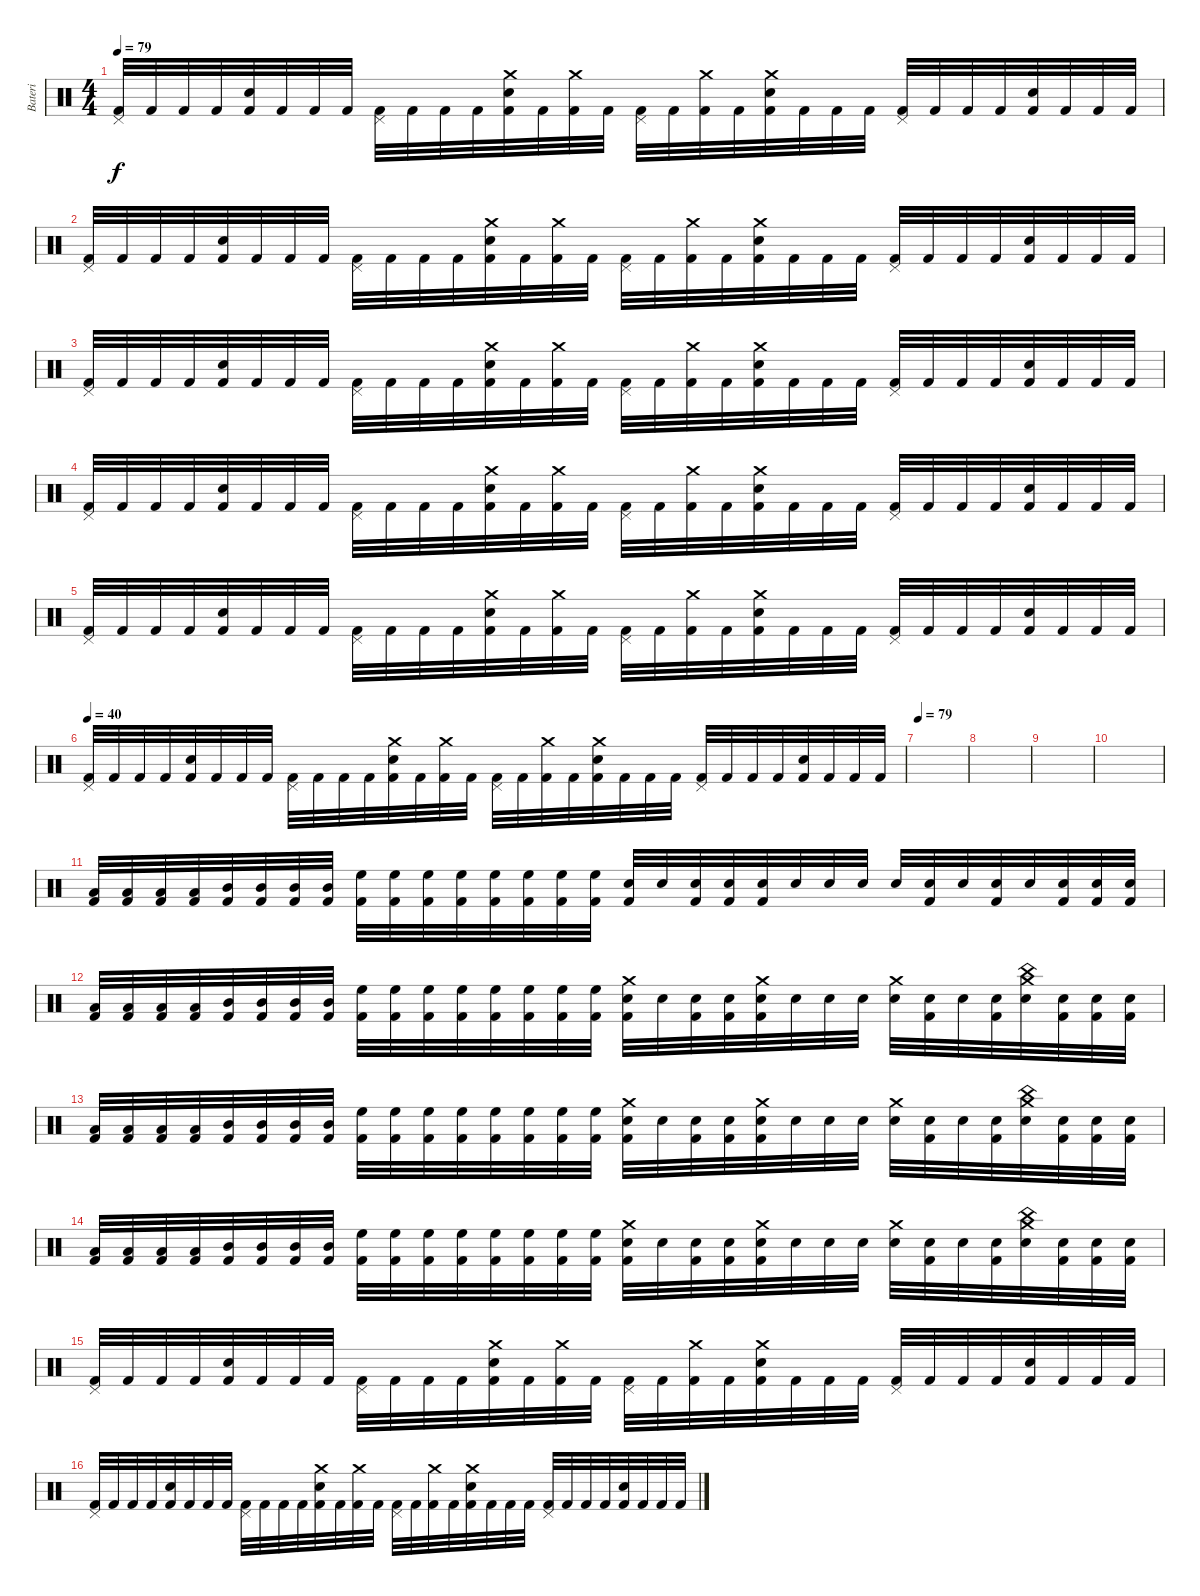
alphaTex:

\track ("Bateri" "Bateri") {instrument percussion}
\staff {score}
\articulation defaults
\ts (4 4)
\tempo 79
\clef neutral
\ks c
("Pedal Hi-Hat (hit)" "Kick (hit) 2").32{dy f} "Kick (hit) 2".32 "Kick (hit) 2".32 "Kick (hit) 2".32 ("Electric Snare (hit)" "Kick (hit) 2").32 "Kick (hit) 2".32 "Kick (hit) 2".32 "Kick (hit) 2".32 ("Pedal Hi-Hat (hit)" "Kick (hit) 2").32 "Kick (hit) 2".32 "Kick (hit) 2".32 "Kick (hit) 2".32 ("Crash medium (hit)" "Electric Snare (hit)" "Kick (hit) 2").32 "Kick (hit) 2".32 ("Crash medium (hit)" "Kick (hit) 2").32 "Kick (hit) 2".32 ("Pedal Hi-Hat (hit)" "Kick (hit) 2").32 "Kick (hit) 2".32 ("Crash medium (hit)" "Kick (hit) 2").32 "Kick (hit) 2".32 ("Crash medium (hit)" "Electric Snare (hit)" "Kick (hit) 2").32 "Kick (hit) 2".32 "Kick (hit) 2".32 "Kick (hit) 2".32 ("Pedal Hi-Hat (hit)" "Kick (hit) 2").32 "Kick (hit) 2".32 "Kick (hit) 2".32 "Kick (hit) 2".32 ("Electric Snare (hit)" "Kick (hit) 2").32 "Kick (hit) 2".32 "Kick (hit) 2".32 "Kick (hit) 2".32 |
("Pedal Hi-Hat (hit)" "Kick (hit) 2").32 "Kick (hit) 2".32 "Kick (hit) 2".32 "Kick (hit) 2".32 ("Electric Snare (hit)" "Kick (hit) 2").32 "Kick (hit) 2".32 "Kick (hit) 2".32 "Kick (hit) 2".32 ("Pedal Hi-Hat (hit)" "Kick (hit) 2").32 "Kick (hit) 2".32 "Kick (hit) 2".32 "Kick (hit) 2".32 ("Crash medium (hit)" "Electric Snare (hit)" "Kick (hit) 2").32 "Kick (hit) 2".32 ("Crash medium (hit)" "Kick (hit) 2").32 "Kick (hit) 2".32 ("Pedal Hi-Hat (hit)" "Kick (hit) 2").32 "Kick (hit) 2".32 ("Crash medium (hit)" "Kick (hit) 2").32 "Kick (hit) 2".32 ("Crash medium (hit)" "Electric Snare (hit)" "Kick (hit) 2").32 "Kick (hit) 2".32 "Kick (hit) 2".32 "Kick (hit) 2".32 ("Pedal Hi-Hat (hit)" "Kick (hit) 2").32 "Kick (hit) 2".32 "Kick (hit) 2".32 "Kick (hit) 2".32 ("Electric Snare (hit)" "Kick (hit) 2").32 "Kick (hit) 2".32 "Kick (hit) 2".32 "Kick (hit) 2".32 |
("Pedal Hi-Hat (hit)" "Kick (hit) 2").32 "Kick (hit) 2".32 "Kick (hit) 2".32 "Kick (hit) 2".32 ("Electric Snare (hit)" "Kick (hit) 2").32 "Kick (hit) 2".32 "Kick (hit) 2".32 "Kick (hit) 2".32 ("Pedal Hi-Hat (hit)" "Kick (hit) 2").32 "Kick (hit) 2".32 "Kick (hit) 2".32 "Kick (hit) 2".32 ("Crash medium (hit)" "Electric Snare (hit)" "Kick (hit) 2").32 "Kick (hit) 2".32 ("Crash medium (hit)" "Kick (hit) 2").32 "Kick (hit) 2".32 ("Pedal Hi-Hat (hit)" "Kick (hit) 2").32 "Kick (hit) 2".32 ("Crash medium (hit)" "Kick (hit) 2").32 "Kick (hit) 2".32 ("Crash medium (hit)" "Electric Snare (hit)" "Kick (hit) 2").32 "Kick (hit) 2".32 "Kick (hit) 2".32 "Kick (hit) 2".32 ("Pedal Hi-Hat (hit)" "Kick (hit) 2").32 "Kick (hit) 2".32 "Kick (hit) 2".32 "Kick (hit) 2".32 ("Electric Snare (hit)" "Kick (hit) 2").32 "Kick (hit) 2".32 "Kick (hit) 2".32 "Kick (hit) 2".32 |
("Pedal Hi-Hat (hit)" "Kick (hit) 2").32 "Kick (hit) 2".32 "Kick (hit) 2".32 "Kick (hit) 2".32 ("Electric Snare (hit)" "Kick (hit) 2").32 "Kick (hit) 2".32 "Kick (hit) 2".32 "Kick (hit) 2".32 ("Pedal Hi-Hat (hit)" "Kick (hit) 2").32 "Kick (hit) 2".32 "Kick (hit) 2".32 "Kick (hit) 2".32 ("Crash medium (hit)" "Electric Snare (hit)" "Kick (hit) 2").32 "Kick (hit) 2".32 ("Crash medium (hit)" "Kick (hit) 2").32 "Kick (hit) 2".32 ("Pedal Hi-Hat (hit)" "Kick (hit) 2").32 "Kick (hit) 2".32 ("Crash medium (hit)" "Kick (hit) 2").32 "Kick (hit) 2".32 ("Crash medium (hit)" "Electric Snare (hit)" "Kick (hit) 2").32 "Kick (hit) 2".32 "Kick (hit) 2".32 "Kick (hit) 2".32 ("Pedal Hi-Hat (hit)" "Kick (hit) 2").32 "Kick (hit) 2".32 "Kick (hit) 2".32 "Kick (hit) 2".32 ("Electric Snare (hit)" "Kick (hit) 2").32 "Kick (hit) 2".32 "Kick (hit) 2".32 "Kick (hit) 2".32 |
("Pedal Hi-Hat (hit)" "Kick (hit) 2").32 "Kick (hit) 2".32 "Kick (hit) 2".32 "Kick (hit) 2".32 ("Electric Snare (hit)" "Kick (hit) 2").32 "Kick (hit) 2".32 "Kick (hit) 2".32 "Kick (hit) 2".32 ("Pedal Hi-Hat (hit)" "Kick (hit) 2").32 "Kick (hit) 2".32 "Kick (hit) 2".32 "Kick (hit) 2".32 ("Crash medium (hit)" "Electric Snare (hit)" "Kick (hit) 2").32 "Kick (hit) 2".32 ("Crash medium (hit)" "Kick (hit) 2").32 "Kick (hit) 2".32 ("Pedal Hi-Hat (hit)" "Kick (hit) 2").32 "Kick (hit) 2".32 ("Crash medium (hit)" "Kick (hit) 2").32 "Kick (hit) 2".32 ("Crash medium (hit)" "Electric Snare (hit)" "Kick (hit) 2").32 "Kick (hit) 2".32 "Kick (hit) 2".32 "Kick (hit) 2".32 ("Pedal Hi-Hat (hit)" "Kick (hit) 2").32 "Kick (hit) 2".32 "Kick (hit) 2".32 "Kick (hit) 2".32 ("Electric Snare (hit)" "Kick (hit) 2").32 "Kick (hit) 2".32 "Kick (hit) 2".32 "Kick (hit) 2".32 |
\tempo 40
("Pedal Hi-Hat (hit)" "Kick (hit) 2").32 "Kick (hit) 2".32 "Kick (hit) 2".32 "Kick (hit) 2".32 ("Electric Snare (hit)" "Kick (hit) 2").32 "Kick (hit) 2".32 "Kick (hit) 2".32 "Kick (hit) 2".32 ("Pedal Hi-Hat (hit)" "Kick (hit) 2").32 "Kick (hit) 2".32 "Kick (hit) 2".32 "Kick (hit) 2".32 ("Crash medium (hit)" "Electric Snare (hit)" "Kick (hit) 2").32 "Kick (hit) 2".32 ("Crash medium (hit)" "Kick (hit) 2").32 "Kick (hit) 2".32 ("Pedal Hi-Hat (hit)" "Kick (hit) 2").32 "Kick (hit) 2".32 ("Crash medium (hit)" "Kick (hit) 2").32 "Kick (hit) 2".32 ("Crash medium (hit)" "Electric Snare (hit)" "Kick (hit) 2").32 "Kick (hit) 2".32 "Kick (hit) 2".32 "Kick (hit) 2".32 ("Pedal Hi-Hat (hit)" "Kick (hit) 2").32 "Kick (hit) 2".32 "Kick (hit) 2".32 "Kick (hit) 2".32 ("Electric Snare (hit)" "Kick (hit) 2").32 "Kick (hit) 2".32 "Kick (hit) 2".32 "Kick (hit) 2".32 |
\tempo 79
|
|
|
|
("Low Tom (hit)" "Kick (hit) 2").32 ("Low Tom (hit)" "Kick (hit) 2").32 ("Low Tom (hit)" "Kick (hit) 2").32 ("Low Tom (hit)" "Kick (hit) 2").32 ("Mid Tom (hit)" "Kick (hit) 2").32 ("Mid Tom (hit)" "Kick (hit) 2").32 ("Mid Tom (hit)" "Kick (hit) 2").32 ("Mid Tom (hit)" "Kick (hit) 2").32 ("High Floor Tom (hit)" "Kick (hit) 2").32 ("High Floor Tom (hit)" "Kick (hit) 2").32 ("High Floor Tom (hit)" "Kick (hit) 2").32 ("High Floor Tom (hit)" "Kick (hit) 2").32 ("High Floor Tom (hit)" "Kick (hit) 2").32 ("High Floor Tom (hit)" "Kick (hit) 2").32 ("High Floor Tom (hit)" "Kick (hit) 2").32 ("High Floor Tom (hit)" "Kick (hit) 2").32 ("Electric Snare (hit)" "Kick (hit) 2").32 "Electric Snare (hit)".32 ("Electric Snare (hit)" "Kick (hit) 2").32 ("Electric Snare (hit)" "Kick (hit) 2").32 ("Electric Snare (hit)" "Kick (hit) 2").32 "Electric Snare (hit)".32 "Electric Snare (hit)".32 "Electric Snare (hit)".32 "Electric Snare (hit)".32 ("Electric Snare (hit)" "Kick (hit) 2").32 "Electric Snare (hit)".32 ("Electric Snare (hit)" "Kick (hit) 2").32 "Electric Snare (hit)".32 ("Electric Snare (hit)" "Kick (hit) 2").32 ("Electric Snare (hit)" "Kick (hit) 2").32 ("Electric Snare (hit)" "Kick (hit) 2").32 |
("Low Tom (hit)" "Kick (hit) 2").32 ("Low Tom (hit)" "Kick (hit) 2").32 ("Low Tom (hit)" "Kick (hit) 2").32 ("Low Tom (hit)" "Kick (hit) 2").32 ("Mid Tom (hit)" "Kick (hit) 2").32 ("Mid Tom (hit)" "Kick (hit) 2").32 ("Mid Tom (hit)" "Kick (hit) 2").32 ("Mid Tom (hit)" "Kick (hit) 2").32 ("High Floor Tom (hit)" "Kick (hit) 2").32 ("High Floor Tom (hit)" "Kick (hit) 2").32 ("High Floor Tom (hit)" "Kick (hit) 2").32 ("High Floor Tom (hit)" "Kick (hit) 2").32 ("High Floor Tom (hit)" "Kick (hit) 2").32 ("High Floor Tom (hit)" "Kick (hit) 2").32 ("High Floor Tom (hit)" "Kick (hit) 2").32 ("High Floor Tom (hit)" "Kick (hit) 2").32 ("Crash medium (hit)" "Electric Snare (hit)" "Kick (hit) 2").32 "Electric Snare (hit)".32 ("Electric Snare (hit)" "Kick (hit) 2").32 ("Electric Snare (hit)" "Kick (hit) 2").32 ("Crash medium (hit)" "Electric Snare (hit)" "Kick (hit) 2").32 "Electric Snare (hit)".32 "Electric Snare (hit)".32 "Electric Snare (hit)".32 ("Crash medium (hit)" "Electric Snare (hit)").32 ("Electric Snare (hit)" "Kick (hit) 2").32 "Electric Snare (hit)".32 ("Electric Snare (hit)" "Kick (hit) 2").32 ("Crash medium (hit)" "China (hit)" "Electric Snare (hit)").32 ("Electric Snare (hit)" "Kick (hit) 2").32 ("Electric Snare (hit)" "Kick (hit) 2").32 ("Electric Snare (hit)" "Kick (hit) 2").32 |
("Low Tom (hit)" "Kick (hit) 2").32 ("Low Tom (hit)" "Kick (hit) 2").32 ("Low Tom (hit)" "Kick (hit) 2").32 ("Low Tom (hit)" "Kick (hit) 2").32 ("Mid Tom (hit)" "Kick (hit) 2").32 ("Mid Tom (hit)" "Kick (hit) 2").32 ("Mid Tom (hit)" "Kick (hit) 2").32 ("Mid Tom (hit)" "Kick (hit) 2").32 ("High Floor Tom (hit)" "Kick (hit) 2").32 ("High Floor Tom (hit)" "Kick (hit) 2").32 ("High Floor Tom (hit)" "Kick (hit) 2").32 ("High Floor Tom (hit)" "Kick (hit) 2").32 ("High Floor Tom (hit)" "Kick (hit) 2").32 ("High Floor Tom (hit)" "Kick (hit) 2").32 ("High Floor Tom (hit)" "Kick (hit) 2").32 ("High Floor Tom (hit)" "Kick (hit) 2").32 ("Crash medium (hit)" "Electric Snare (hit)" "Kick (hit) 2").32 "Electric Snare (hit)".32 ("Electric Snare (hit)" "Kick (hit) 2").32 ("Electric Snare (hit)" "Kick (hit) 2").32 ("Crash medium (hit)" "Electric Snare (hit)" "Kick (hit) 2").32 "Electric Snare (hit)".32 "Electric Snare (hit)".32 "Electric Snare (hit)".32 ("Crash medium (hit)" "Electric Snare (hit)").32 ("Electric Snare (hit)" "Kick (hit) 2").32 "Electric Snare (hit)".32 ("Electric Snare (hit)" "Kick (hit) 2").32 ("Crash medium (hit)" "China (hit)" "Electric Snare (hit)").32 ("Electric Snare (hit)" "Kick (hit) 2").32 ("Electric Snare (hit)" "Kick (hit) 2").32 ("Electric Snare (hit)" "Kick (hit) 2").32 |
("Low Tom (hit)" "Kick (hit) 2").32 ("Low Tom (hit)" "Kick (hit) 2").32 ("Low Tom (hit)" "Kick (hit) 2").32 ("Low Tom (hit)" "Kick (hit) 2").32 ("Mid Tom (hit)" "Kick (hit) 2").32 ("Mid Tom (hit)" "Kick (hit) 2").32 ("Mid Tom (hit)" "Kick (hit) 2").32 ("Mid Tom (hit)" "Kick (hit) 2").32 ("High Floor Tom (hit)" "Kick (hit) 2").32 ("High Floor Tom (hit)" "Kick (hit) 2").32 ("High Floor Tom (hit)" "Kick (hit) 2").32 ("High Floor Tom (hit)" "Kick (hit) 2").32 ("High Floor Tom (hit)" "Kick (hit) 2").32 ("High Floor Tom (hit)" "Kick (hit) 2").32 ("High Floor Tom (hit)" "Kick (hit) 2").32 ("High Floor Tom (hit)" "Kick (hit) 2").32 ("Crash medium (hit)" "Electric Snare (hit)" "Kick (hit) 2").32 "Electric Snare (hit)".32 ("Electric Snare (hit)" "Kick (hit) 2").32 ("Electric Snare (hit)" "Kick (hit) 2").32 ("Crash medium (hit)" "Electric Snare (hit)" "Kick (hit) 2").32 "Electric Snare (hit)".32 "Electric Snare (hit)".32 "Electric Snare (hit)".32 ("Crash medium (hit)" "Electric Snare (hit)").32 ("Electric Snare (hit)" "Kick (hit) 2").32 "Electric Snare (hit)".32 ("Electric Snare (hit)" "Kick (hit) 2").32 ("Crash medium (hit)" "China (hit)" "Electric Snare (hit)").32 ("Electric Snare (hit)" "Kick (hit) 2").32 ("Electric Snare (hit)" "Kick (hit) 2").32 ("Electric Snare (hit)" "Kick (hit) 2").32 |
("Pedal Hi-Hat (hit)" "Kick (hit) 2").32 "Kick (hit) 2".32 "Kick (hit) 2".32 "Kick (hit) 2".32 ("Electric Snare (hit)" "Kick (hit) 2").32 "Kick (hit) 2".32 "Kick (hit) 2".32 "Kick (hit) 2".32 ("Pedal Hi-Hat (hit)" "Kick (hit) 2").32 "Kick (hit) 2".32 "Kick (hit) 2".32 "Kick (hit) 2".32 ("Crash medium (hit)" "Electric Snare (hit)" "Kick (hit) 2").32 "Kick (hit) 2".32 ("Crash medium (hit)" "Kick (hit) 2").32 "Kick (hit) 2".32 ("Pedal Hi-Hat (hit)" "Kick (hit) 2").32 "Kick (hit) 2".32 ("Crash medium (hit)" "Kick (hit) 2").32 "Kick (hit) 2".32 ("Crash medium (hit)" "Electric Snare (hit)" "Kick (hit) 2").32 "Kick (hit) 2".32 "Kick (hit) 2".32 "Kick (hit) 2".32 ("Pedal Hi-Hat (hit)" "Kick (hit) 2").32 "Kick (hit) 2".32 "Kick (hit) 2".32 "Kick (hit) 2".32 ("Electric Snare (hit)" "Kick (hit) 2").32 "Kick (hit) 2".32 "Kick (hit) 2".32 "Kick (hit) 2".32 |
("Pedal Hi-Hat (hit)" "Kick (hit) 2").32 "Kick (hit) 2".32 "Kick (hit) 2".32 "Kick (hit) 2".32 ("Electric Snare (hit)" "Kick (hit) 2").32 "Kick (hit) 2".32 "Kick (hit) 2".32 "Kick (hit) 2".32 ("Pedal Hi-Hat (hit)" "Kick (hit) 2").32 "Kick (hit) 2".32 "Kick (hit) 2".32 "Kick (hit) 2".32 ("Crash medium (hit)" "Electric Snare (hit)" "Kick (hit) 2").32 "Kick (hit) 2".32 ("Crash medium (hit)" "Kick (hit) 2").32 "Kick (hit) 2".32 ("Pedal Hi-Hat (hit)" "Kick (hit) 2").32 "Kick (hit) 2".32 ("Crash medium (hit)" "Kick (hit) 2").32 "Kick (hit) 2".32 ("Crash medium (hit)" "Electric Snare (hit)" "Kick (hit) 2").32 "Kick (hit) 2".32 "Kick (hit) 2".32 "Kick (hit) 2".32 ("Pedal Hi-Hat (hit)" "Kick (hit) 2").32 "Kick (hit) 2".32 "Kick (hit) 2".32 "Kick (hit) 2".32 ("Electric Snare (hit)" "Kick (hit) 2").32 "Kick (hit) 2".32 "Kick (hit) 2".32 "Kick (hit) 2".32
